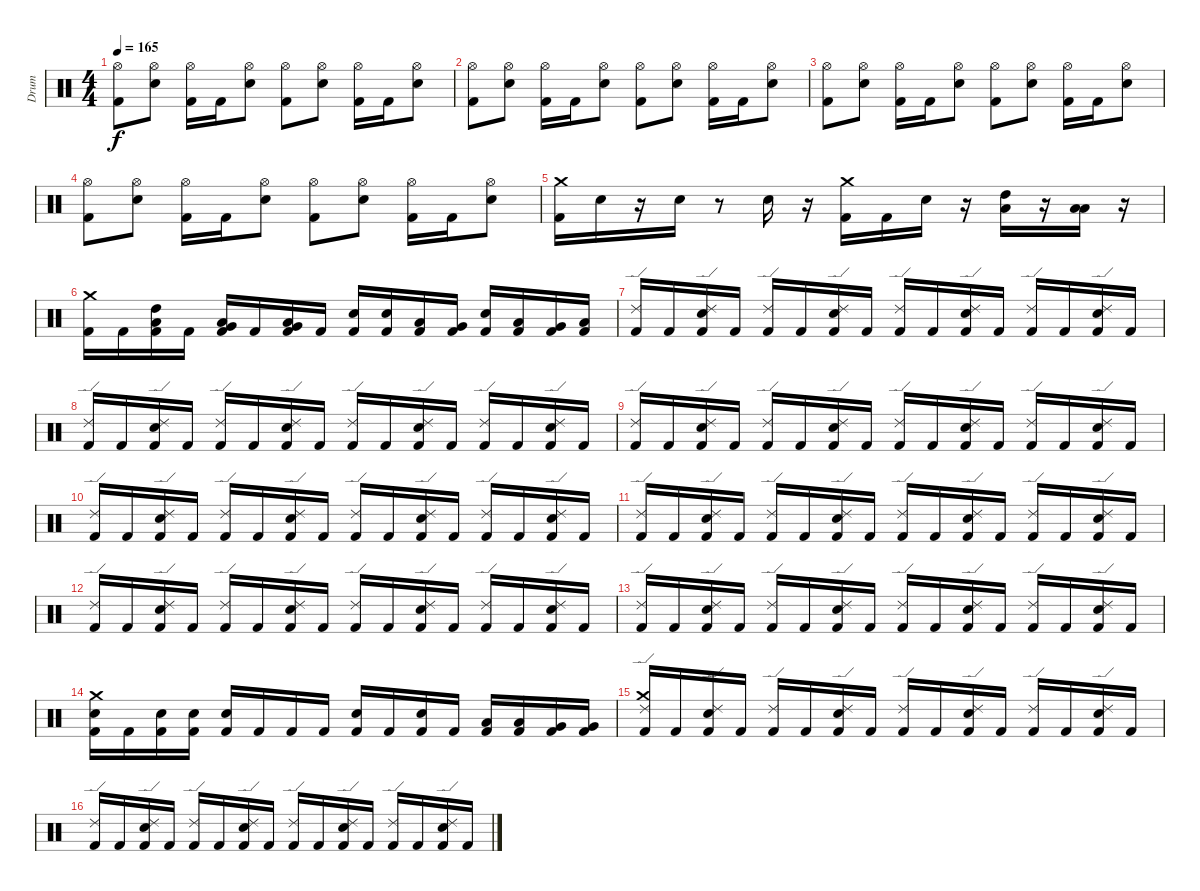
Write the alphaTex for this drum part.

\track ("Drum" "Drum") {instrument percussion}
\staff {score}
\articulation defaults
\ts (4 4)
\tempo 165
\clef neutral
\ks c
("Hi-Hat (open)" "Kick (hit) 2").8{dy f} ("Hi-Hat (open)" "Electric Snare (hit)").8 ("Hi-Hat (open)" "Kick (hit) 2").16 "Kick (hit) 2".16 ("Hi-Hat (open)" "Electric Snare (hit)").8 ("Hi-Hat (open)" "Kick (hit) 2").8 ("Hi-Hat (open)" "Electric Snare (hit)").8 ("Hi-Hat (open)" "Kick (hit) 2").16 "Kick (hit) 2".16 ("Hi-Hat (open)" "Electric Snare (hit)").8 |
("Hi-Hat (open)" "Kick (hit) 2").8 ("Hi-Hat (open)" "Electric Snare (hit)").8 ("Hi-Hat (open)" "Kick (hit) 2").16 "Kick (hit) 2".16 ("Hi-Hat (open)" "Electric Snare (hit)").8 ("Hi-Hat (open)" "Kick (hit) 2").8 ("Hi-Hat (open)" "Electric Snare (hit)").8 ("Hi-Hat (open)" "Kick (hit) 2").16 "Kick (hit) 2".16 ("Hi-Hat (open)" "Electric Snare (hit)").8 |
("Hi-Hat (open)" "Kick (hit) 2").8 ("Hi-Hat (open)" "Electric Snare (hit)").8 ("Hi-Hat (open)" "Kick (hit) 2").16 "Kick (hit) 2".16 ("Hi-Hat (open)" "Electric Snare (hit)").8 ("Hi-Hat (open)" "Kick (hit) 2").8 ("Hi-Hat (open)" "Electric Snare (hit)").8 ("Hi-Hat (open)" "Kick (hit) 2").16 "Kick (hit) 2".16 ("Hi-Hat (open)" "Electric Snare (hit)").8 |
("Hi-Hat (open)" "Kick (hit) 2").8 ("Hi-Hat (open)" "Electric Snare (hit)").8 ("Hi-Hat (open)" "Kick (hit) 2").16 "Kick (hit) 2".16 ("Hi-Hat (open)" "Electric Snare (hit)").8 ("Hi-Hat (open)" "Kick (hit) 2").8 ("Hi-Hat (open)" "Electric Snare (hit)").8 ("Hi-Hat (open)" "Kick (hit) 2").16 "Kick (hit) 2".16 ("Hi-Hat (open)" "Electric Snare (hit)").8 |
("Crash medium (hit)" "Kick (hit) 2").16 "Electric Snare (hit)".16 r.16 "Electric Snare (hit)".16 r.8 "Electric Snare (hit)".16 r.16 ("Crash medium (hit)" "Kick (hit) 2").16 "Kick (hit) 2".16 "Electric Snare (hit)".16 r.16 ("High Tom (hit)" "Low Tom (hit)").16 r.16 ("Low Floor Tom (hit)" "Low Tom (hit)").16 r.16 |
("Crash medium (hit)" "Kick (hit) 2").16 "Kick (hit) 2".16 ("Low Tom (hit)" "High Tom (hit)" "Kick (hit) 2").16 "Kick (hit) 2".16 ("Low Tom (hit)" "Very Low Tom (hit)" "Kick (hit) 2").16 "Kick (hit) 2".16 ("Very Low Tom (hit)" "Low Floor Tom (hit)" "Kick (hit) 2").16 "Kick (hit) 2".16 ("Electric Snare (hit)" "Kick (hit) 2").16 ("Electric Snare (hit)" "Kick (hit) 2").16 ("Low Tom (hit)" "Kick (hit) 2").16 ("Very Low Tom (hit)" "Kick (hit) 2").16 ("Electric Snare (hit)" "Kick (hit) 2").16 ("Low Tom (hit)" "Kick (hit) 2").16 ("Very Low Tom (hit)" "Kick (hit) 2").16 ("Low Floor Tom (hit)" "Kick (hit) 2").16 |
("Ride (edge) 2" "Kick (hit) 2").16 "Kick (hit) 2".16 ("Electric Snare (hit)" "Ride (edge) 2" "Kick (hit) 2").16 "Kick (hit) 2".16 ("Ride (edge) 2" "Kick (hit) 2").16 "Kick (hit) 2".16 ("Electric Snare (hit)" "Ride (edge) 2" "Kick (hit) 2").16 "Kick (hit) 2".16 ("Ride (edge) 2" "Kick (hit) 2").16 "Kick (hit) 2".16 ("Electric Snare (hit)" "Ride (edge) 2" "Kick (hit) 2").16 "Kick (hit) 2".16 ("Ride (edge) 2" "Kick (hit) 2").16 "Kick (hit) 2".16 ("Electric Snare (hit)" "Ride (edge) 2" "Kick (hit) 2").16 "Kick (hit) 2".16 |
("Ride (edge) 2" "Kick (hit) 2").16 "Kick (hit) 2".16 ("Electric Snare (hit)" "Ride (edge) 2" "Kick (hit) 2").16 "Kick (hit) 2".16 ("Ride (edge) 2" "Kick (hit) 2").16 "Kick (hit) 2".16 ("Electric Snare (hit)" "Ride (edge) 2" "Kick (hit) 2").16 "Kick (hit) 2".16 ("Ride (edge) 2" "Kick (hit) 2").16 "Kick (hit) 2".16 ("Electric Snare (hit)" "Ride (edge) 2" "Kick (hit) 2").16 "Kick (hit) 2".16 ("Ride (edge) 2" "Kick (hit) 2").16 "Kick (hit) 2".16 ("Electric Snare (hit)" "Ride (edge) 2" "Kick (hit) 2").16 "Kick (hit) 2".16 |
("Ride (edge) 2" "Kick (hit) 2").16 "Kick (hit) 2".16 ("Electric Snare (hit)" "Ride (edge) 2" "Kick (hit) 2").16 "Kick (hit) 2".16 ("Ride (edge) 2" "Kick (hit) 2").16 "Kick (hit) 2".16 ("Electric Snare (hit)" "Ride (edge) 2" "Kick (hit) 2").16 "Kick (hit) 2".16 ("Ride (edge) 2" "Kick (hit) 2").16 "Kick (hit) 2".16 ("Electric Snare (hit)" "Ride (edge) 2" "Kick (hit) 2").16 "Kick (hit) 2".16 ("Ride (edge) 2" "Kick (hit) 2").16 "Kick (hit) 2".16 ("Electric Snare (hit)" "Ride (edge) 2" "Kick (hit) 2").16 "Kick (hit) 2".16 |
("Ride (edge) 2" "Kick (hit) 2").16 "Kick (hit) 2".16 ("Electric Snare (hit)" "Ride (edge) 2" "Kick (hit) 2").16 "Kick (hit) 2".16 ("Ride (edge) 2" "Kick (hit) 2").16 "Kick (hit) 2".16 ("Electric Snare (hit)" "Ride (edge) 2" "Kick (hit) 2").16 "Kick (hit) 2".16 ("Ride (edge) 2" "Kick (hit) 2").16 "Kick (hit) 2".16 ("Electric Snare (hit)" "Ride (edge) 2" "Kick (hit) 2").16 "Kick (hit) 2".16 ("Ride (edge) 2" "Kick (hit) 2").16 "Kick (hit) 2".16 ("Electric Snare (hit)" "Ride (edge) 2" "Kick (hit) 2").16 "Kick (hit) 2".16 |
("Ride (edge) 2" "Kick (hit) 2").16 "Kick (hit) 2".16 ("Electric Snare (hit)" "Ride (edge) 2" "Kick (hit) 2").16 "Kick (hit) 2".16 ("Ride (edge) 2" "Kick (hit) 2").16 "Kick (hit) 2".16 ("Electric Snare (hit)" "Ride (edge) 2" "Kick (hit) 2").16 "Kick (hit) 2".16 ("Ride (edge) 2" "Kick (hit) 2").16 "Kick (hit) 2".16 ("Electric Snare (hit)" "Ride (edge) 2" "Kick (hit) 2").16 "Kick (hit) 2".16 ("Ride (edge) 2" "Kick (hit) 2").16 "Kick (hit) 2".16 ("Electric Snare (hit)" "Ride (edge) 2" "Kick (hit) 2").16 "Kick (hit) 2".16 |
("Ride (edge) 2" "Kick (hit) 2").16 "Kick (hit) 2".16 ("Electric Snare (hit)" "Ride (edge) 2" "Kick (hit) 2").16 "Kick (hit) 2".16 ("Ride (edge) 2" "Kick (hit) 2").16 "Kick (hit) 2".16 ("Electric Snare (hit)" "Ride (edge) 2" "Kick (hit) 2").16 "Kick (hit) 2".16 ("Ride (edge) 2" "Kick (hit) 2").16 "Kick (hit) 2".16 ("Electric Snare (hit)" "Ride (edge) 2" "Kick (hit) 2").16 "Kick (hit) 2".16 ("Ride (edge) 2" "Kick (hit) 2").16 "Kick (hit) 2".16 ("Electric Snare (hit)" "Ride (edge) 2" "Kick (hit) 2").16 "Kick (hit) 2".16 |
("Ride (edge) 2" "Kick (hit) 2").16 "Kick (hit) 2".16 ("Electric Snare (hit)" "Ride (edge) 2" "Kick (hit) 2").16 "Kick (hit) 2".16 ("Ride (edge) 2" "Kick (hit) 2").16 "Kick (hit) 2".16 ("Electric Snare (hit)" "Ride (edge) 2" "Kick (hit) 2").16 "Kick (hit) 2".16 ("Ride (edge) 2" "Kick (hit) 2").16 "Kick (hit) 2".16 ("Electric Snare (hit)" "Ride (edge) 2" "Kick (hit) 2").16 "Kick (hit) 2".16 ("Ride (edge) 2" "Kick (hit) 2").16 "Kick (hit) 2".16 ("Electric Snare (hit)" "Ride (edge) 2" "Kick (hit) 2").16 "Kick (hit) 2".16 |
("Crash medium (hit)" "Electric Snare (hit)" "Kick (hit) 2").16 "Kick (hit) 2".16 ("Electric Snare (hit)" "Kick (hit) 2").16 ("Electric Snare (hit)" "Kick (hit) 2").16 ("Electric Snare (hit)" "Kick (hit) 2").16 "Kick (hit) 2".16 "Kick (hit) 2".16 "Kick (hit) 2".16 ("Electric Snare (hit)" "Kick (hit) 2").16 "Kick (hit) 2".16 ("Electric Snare (hit)" "Kick (hit) 2").16 "Kick (hit) 2".16 ("Low Tom (hit)" "Kick (hit) 2").16 ("Low Tom (hit)" "Kick (hit) 2").16 ("Very Low Tom (hit)" "Kick (hit) 2").16 ("Very Low Tom (hit)" "Kick (hit) 2").16 |
("Crash medium (hit)" "Ride (edge) 2" "Kick (hit) 2").16 "Kick (hit) 2".16 ("Electric Snare (hit)" "Ride (edge) 2" "Kick (hit) 2").16 "Kick (hit) 2".16 ("Ride (edge) 2" "Kick (hit) 2").16 "Kick (hit) 2".16 ("Electric Snare (hit)" "Ride (edge) 2" "Kick (hit) 2").16 "Kick (hit) 2".16 ("Ride (edge) 2" "Kick (hit) 2").16 "Kick (hit) 2".16 ("Electric Snare (hit)" "Ride (edge) 2" "Kick (hit) 2").16 "Kick (hit) 2".16 ("Ride (edge) 2" "Kick (hit) 2").16 "Kick (hit) 2".16 ("Electric Snare (hit)" "Ride (edge) 2" "Kick (hit) 2").16 "Kick (hit) 2".16 |
("Ride (edge) 2" "Kick (hit) 2").16 "Kick (hit) 2".16 ("Electric Snare (hit)" "Ride (edge) 2" "Kick (hit) 2").16 "Kick (hit) 2".16 ("Ride (edge) 2" "Kick (hit) 2").16 "Kick (hit) 2".16 ("Electric Snare (hit)" "Ride (edge) 2" "Kick (hit) 2").16 "Kick (hit) 2".16 ("Ride (edge) 2" "Kick (hit) 2").16 "Kick (hit) 2".16 ("Electric Snare (hit)" "Ride (edge) 2" "Kick (hit) 2").16 "Kick (hit) 2".16 ("Ride (edge) 2" "Kick (hit) 2").16 "Kick (hit) 2".16 ("Electric Snare (hit)" "Ride (edge) 2" "Kick (hit) 2").16 "Kick (hit) 2".16
